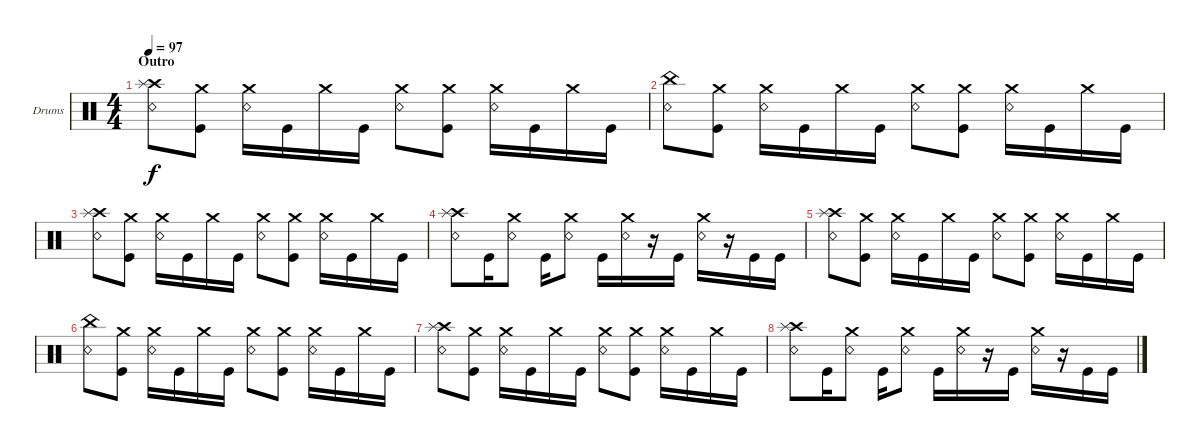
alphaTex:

\bracketExtendMode groupsimilarinstruments
\firstSystemTrackNameOrientation horizontal
\otherSystemsTrackNameOrientation horizontal
\track ("Drumkit" "Drums") {instrument percussion}
\staff {score}
\articulation defaults
\ts (4 4)
\section ("" "Outro")
\tempo 97
\clef neutral
\scale
0.333333
\ks c
("Snare (rim shot)" "Crash high (hit)" "Splash (hit)").8{dy f} ("Kick (hit)" "Crash medium (hit)").8 ("Snare (rim shot)" "Crash medium (hit)").16 "Kick (hit)".16 "Crash medium (hit)".16 "Kick (hit)".16 ("Snare (rim shot)" "Crash medium (hit)").8 ("Kick (hit)" "Crash medium (hit)").8 ("Snare (rim shot)" "Crash medium (hit)").16 "Kick (hit)".16 "Crash medium (hit)".16 "Kick (hit)".16 |
\scale
0.333333 ("Snare (rim shot)" "China (hit)").8 ("Kick (hit)" "Crash medium (hit)").8 ("Snare (rim shot)" "Crash medium (hit)").16 "Kick (hit)".16 "Crash medium (hit)".16 "Kick (hit)".16 ("Snare (rim shot)" "Crash medium (hit)").8 ("Kick (hit)" "Crash medium (hit)").8 ("Snare (rim shot)" "Crash medium (hit)").16 "Kick (hit)".16 "Crash medium (hit)".16 "Kick (hit)".16 |
\scale
0.333333 ("Snare (rim shot)" "Crash high (hit)" "Splash (hit)").8 ("Kick (hit)" "Crash medium (hit)").8 ("Snare (rim shot)" "Crash medium (hit)").16 "Kick (hit)".16 "Crash medium (hit)".16 "Kick (hit)".16 ("Snare (rim shot)" "Crash medium (hit)").8 ("Kick (hit)" "Crash medium (hit)").8 ("Snare (rim shot)" "Crash medium (hit)").16 "Kick (hit)".16 "Crash medium (hit)".16 "Kick (hit)".16 |
\scale
0.333333 ("Snare (rim shot)" "Crash high (hit)" "Splash (hit)").8 "Kick (hit)".16 ("Snare (rim shot)" "Crash medium (hit)").8 "Kick (hit)".16 ("Snare (rim shot)" "Crash medium (hit)").8 "Kick (hit)".16 ("Crash medium (hit)" "Snare (rim shot)").16 r.16 "Kick (hit)".16 ("Snare (rim shot)" "Crash medium (hit)").16 r.16 "Kick (hit)".16 "Kick (hit)".16 |
\scale
0.333333 ("Snare (rim shot)" "Crash high (hit)" "Splash (hit)").8 ("Kick (hit)" "Crash medium (hit)").8 ("Snare (rim shot)" "Crash medium (hit)").16 "Kick (hit)".16 "Crash medium (hit)".16 "Kick (hit)".16 ("Snare (rim shot)" "Crash medium (hit)").8 ("Kick (hit)" "Crash medium (hit)").8 ("Snare (rim shot)" "Crash medium (hit)").16 "Kick (hit)".16 "Crash medium (hit)".16 "Kick (hit)".16 |
("Snare (rim shot)" "China (hit)").8 ("Kick (hit)" "Crash medium (hit)").8 ("Snare (rim shot)" "Crash medium (hit)").16 "Kick (hit)".16 "Crash medium (hit)".16 "Kick (hit)".16 ("Snare (rim shot)" "Crash medium (hit)").8 ("Kick (hit)" "Crash medium (hit)").8 ("Snare (rim shot)" "Crash medium (hit)").16 "Kick (hit)".16 "Crash medium (hit)".16 "Kick (hit)".16 |
("Snare (rim shot)" "Crash high (hit)" "Splash (hit)").8 ("Kick (hit)" "Crash medium (hit)").8 ("Snare (rim shot)" "Crash medium (hit)").16 "Kick (hit)".16 "Crash medium (hit)".16 "Kick (hit)".16 ("Snare (rim shot)" "Crash medium (hit)").8 ("Kick (hit)" "Crash medium (hit)").8 ("Snare (rim shot)" "Crash medium (hit)").16 "Kick (hit)".16 "Crash medium (hit)".16 "Kick (hit)".16 |
("Snare (rim shot)" "Crash high (hit)" "Splash (hit)").8 "Kick (hit)".16 ("Snare (rim shot)" "Crash medium (hit)").8 "Kick (hit)".16 ("Snare (rim shot)" "Crash medium (hit)").8 "Kick (hit)".16 ("Crash medium (hit)" "Snare (rim shot)").16 r.16 "Kick (hit)".16 ("Snare (rim shot)" "Crash medium (hit)").16 r.16 "Kick (hit)".16 "Kick (hit)".16
